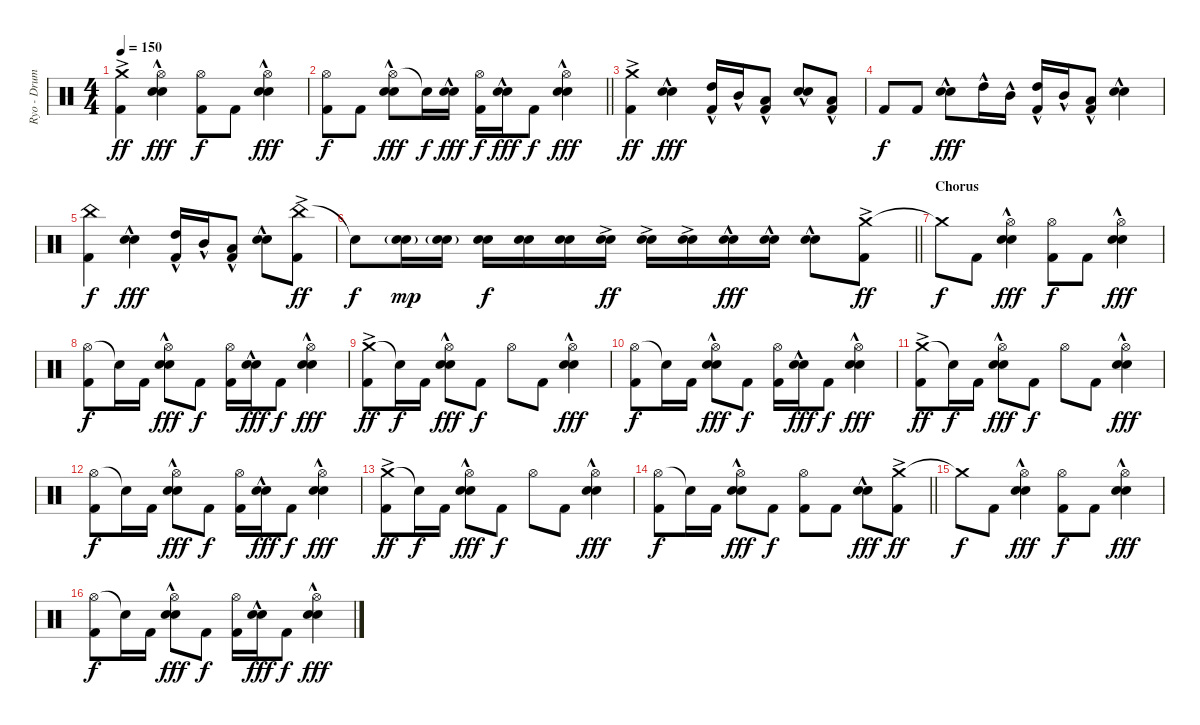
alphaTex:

\track ("Ryo - Drums" "Ryo - Drum") {instrument percussion}
\staff {score}
\articulation defaults
\ts (4 4)
\tempo 150
\clef neutral
\ks c
("Crash medium (hit)"{ac} "Kick (hit) 2").4{dy ff} ("Hi-Hat (open)" "Electric Snare (hit)"{hac} "Snare (hit) 2"{hac}).4{dy fff} ("Hi-Hat (open)" "Kick (hit) 2").8{dy f} "Kick (hit) 2".8 ("Hi-Hat (open)" "Electric Snare (hit)"{hac} "Snare (hit) 2"{hac}).4{dy fff} |
\barLineRight lightlight
("Hi-Hat (open)" "Kick (hit) 2").8{dy f} "Kick (hit) 2".8 ("Hi-Hat (open)" "Electric Snare (hit)"{hac} "Snare (hit) 2"{hac}).8{dy fff} "Snare (hit)"{t}.16{dy f} ("Electric Snare (hit)"{hac} "Snare (hit) 2"{hac}).16{dy fff} ("Hi-Hat (open)" "Kick (hit) 2").16{dy f} ("Electric Snare (hit)"{hac} "Snare (hit) 2"{hac}).16{dy fff} "Kick (hit) 2".8{dy f} ("Hi-Hat (open)" "Electric Snare (hit)"{hac} "Snare (hit) 2"{hac}).4{dy fff} |
("Crash medium (hit)"{ac} "Kick (hit) 2").4{dy ff} ("Electric Snare (hit)"{hac} "Snare (hit) 2"{hac}).4{dy fff} ("High Tom (hit)"{hac} "Kick (hit) 2").16 "Mid Tom (hit)"{hac}.16 ("Low Tom (hit)"{hac} "Kick (hit) 2").8 ("Electric Snare (hit)"{hac} "Snare (hit) 2"{hac}).8 ("Low Tom (hit)"{hac} "Kick (hit) 2").8 |
"Kick (hit) 2".8{dy f} "Kick (hit) 2".8 ("Electric Snare (hit)"{hac} "Snare (hit) 2"{hac}).8{dy fff} "High Tom (hit)"{hac}.16 "Mid Tom (hit)"{hac}.16 ("High Tom (hit)"{hac} "Kick (hit) 2").16 "Mid Tom (hit)"{hac}.16 ("Low Tom (hit)"{hac} "Kick (hit) 2").8 ("Electric Snare (hit)"{hac} "Snare (hit) 2"{hac}).4 |
("China (hit)" "Kick (hit) 2").4{dy f} ("Electric Snare (hit)"{hac} "Snare (hit) 2"{hac}).4{dy fff} ("High Tom (hit)"{hac} "Kick (hit) 2").16 "Mid Tom (hit)"{hac}.16 ("Low Tom (hit)"{hac} "Kick (hit) 2").8 ("Electric Snare (hit)"{hac} "Snare (hit) 2"{hac}).8 ("China (hit)"{ac} "Kick (hit) 2").8{dy ff} |
\barLineRight lightlight "Snare (hit)"{t}.8{dy f}
("Electric Snare (hit)"{g} "Snare (hit) 2"{g}).16{dy mp} ("Electric Snare (hit)"{g} "Snare (hit) 2"{g}).16 ("Electric Snare (hit)" "Snare (hit) 2").16{dy f} ("Electric Snare (hit)" "Snare (hit) 2").16 ("Electric Snare (hit)" "Snare (hit) 2").16 ("Electric Snare (hit)"{ac} "Snare (hit) 2"{ac}).16{dy ff} ("Electric Snare (hit)"{ac} "Snare (hit) 2"{ac}).16 ("Electric Snare (hit)"{ac} "Snare (hit) 2"{ac}).16 ("Electric Snare (hit)"{hac} "Snare (hit) 2"{hac}).16{dy fff} ("Electric Snare (hit)"{hac} "Snare (hit) 2"{hac}).16 ("Electric Snare (hit)"{hac} "Snare (hit) 2"{hac}).8 ("Crash medium (hit)"{ac} "Kick (hit) 2").8{dy ff} |
\section ("" "Chorus")
"Crash medium (hit)"{t}.8{dy f} "Kick (hit) 2".8 ("Hi-Hat (open)" "Electric Snare (hit)"{hac} "Snare (hit) 2"{hac}).4{dy fff} ("Hi-Hat (open)" "Kick (hit) 2").8{dy f} "Kick (hit) 2".8 ("Hi-Hat (open)" "Electric Snare (hit)"{hac} "Snare (hit) 2"{hac}).4{dy fff} |
("Hi-Hat (open)" "Kick (hit) 2").8{dy f} "Snare (hit)"{t}.16 "Kick (hit) 2".16 ("Hi-Hat (open)" "Electric Snare (hit)"{hac} "Snare (hit) 2"{hac}).8{dy fff} "Kick (hit) 2".8{dy f} ("Hi-Hat (open)" "Kick (hit) 2").16 ("Electric Snare (hit)"{hac} "Snare (hit) 2"{hac}).16{dy fff} "Kick (hit) 2".8{dy f} ("Hi-Hat (open)" "Electric Snare (hit)"{hac} "Snare (hit) 2"{hac}).4{dy fff} |
("Crash medium (hit)"{ac} "Kick (hit) 2").8{dy ff} "Snare (hit)"{t}.16{dy f} "Kick (hit) 2".16 ("Hi-Hat (open)" "Electric Snare (hit)"{hac} "Snare (hit) 2"{hac}).8{dy fff} "Kick (hit) 2".8{dy f} "Hi-Hat (open)".8 "Kick (hit) 2".8 ("Hi-Hat (open)" "Electric Snare (hit)"{hac} "Snare (hit) 2"{hac}).4{dy fff} |
("Hi-Hat (open)" "Kick (hit) 2").8{dy f} "Snare (hit)"{t}.16 "Kick (hit) 2".16 ("Hi-Hat (open)" "Electric Snare (hit)"{hac} "Snare (hit) 2"{hac}).8{dy fff} "Kick (hit) 2".8{dy f} ("Hi-Hat (open)" "Kick (hit) 2").16 ("Electric Snare (hit)"{hac} "Snare (hit) 2"{hac}).16{dy fff} "Kick (hit) 2".8{dy f} ("Hi-Hat (open)" "Electric Snare (hit)"{hac} "Snare (hit) 2"{hac}).4{dy fff} |
("Crash medium (hit)"{ac} "Kick (hit) 2").8{dy ff} "Snare (hit)"{t}.16{dy f} "Kick (hit) 2".16 ("Hi-Hat (open)" "Electric Snare (hit)"{hac} "Snare (hit) 2"{hac}).8{dy fff} "Kick (hit) 2".8{dy f} "Hi-Hat (open)".8 "Kick (hit) 2".8 ("Hi-Hat (open)" "Electric Snare (hit)"{hac} "Snare (hit) 2"{hac}).4{dy fff} |
("Hi-Hat (open)" "Kick (hit) 2").8{dy f} "Snare (hit)"{t}.16 "Kick (hit) 2".16 ("Hi-Hat (open)" "Electric Snare (hit)"{hac} "Snare (hit) 2"{hac}).8{dy fff} "Kick (hit) 2".8{dy f} ("Hi-Hat (open)" "Kick (hit) 2").16 ("Electric Snare (hit)"{hac} "Snare (hit) 2"{hac}).16{dy fff} "Kick (hit) 2".8{dy f} ("Hi-Hat (open)" "Electric Snare (hit)"{hac} "Snare (hit) 2"{hac}).4{dy fff} |
("Crash medium (hit)"{ac} "Kick (hit) 2").8{dy ff} "Snare (hit)"{t}.16{dy f} "Kick (hit) 2".16 ("Hi-Hat (open)" "Electric Snare (hit)"{hac} "Snare (hit) 2"{hac}).8{dy fff} "Kick (hit) 2".8{dy f} "Hi-Hat (open)".8 "Kick (hit) 2".8 ("Hi-Hat (open)" "Electric Snare (hit)"{hac} "Snare (hit) 2"{hac}).4{dy fff} |
\barLineRight lightlight
("Hi-Hat (open)" "Kick (hit) 2").8{dy f} "Snare (hit)"{t}.16 "Kick (hit) 2".16 ("Hi-Hat (open)" "Electric Snare (hit)"{hac} "Snare (hit) 2"{hac}).8{dy fff} "Kick (hit) 2".8{dy f} ("Hi-Hat (open)" "Kick (hit) 2").8 "Kick (hit) 2".8 ("Electric Snare (hit)"{hac} "Snare (hit) 2"{hac}).8{dy fff} ("Crash medium (hit)"{ac} "Kick (hit) 2").8{dy ff} |
\section ("" "")
"Crash medium (hit)"{t}.8{dy f} "Kick (hit) 2".8 ("Hi-Hat (open)" "Electric Snare (hit)"{hac} "Snare (hit) 2"{hac}).4{dy fff} ("Hi-Hat (open)" "Kick (hit) 2").8{dy f} "Kick (hit) 2".8 ("Hi-Hat (open)" "Electric Snare (hit)"{hac} "Snare (hit) 2"{hac}).4{dy fff} |
("Hi-Hat (open)" "Kick (hit) 2").8{dy f} "Snare (hit)"{t}.16 "Kick (hit) 2".16 ("Hi-Hat (open)" "Electric Snare (hit)"{hac} "Snare (hit) 2"{hac}).8{dy fff} "Kick (hit) 2".8{dy f} ("Hi-Hat (open)" "Kick (hit) 2").16 ("Electric Snare (hit)"{hac} "Snare (hit) 2"{hac}).16{dy fff} "Kick (hit) 2".8{dy f} ("Hi-Hat (open)" "Electric Snare (hit)"{hac} "Snare (hit) 2"{hac}).4{dy fff}
